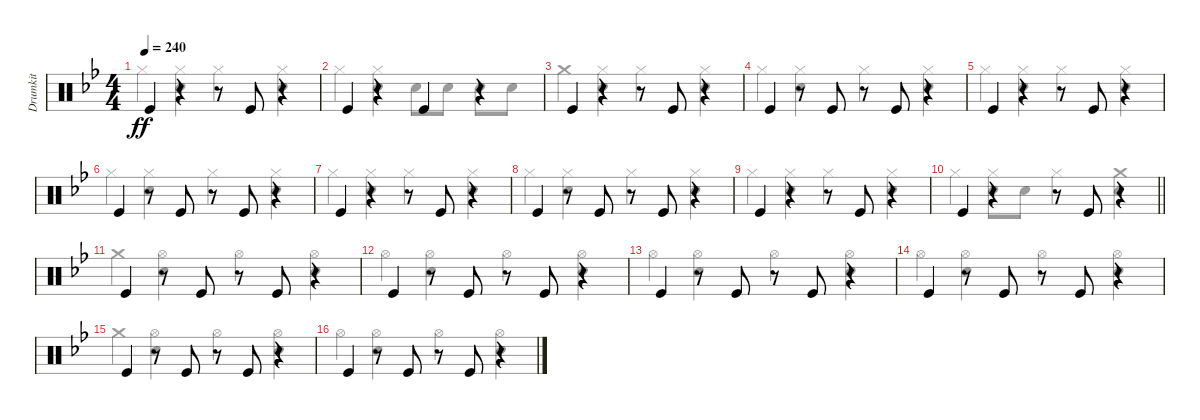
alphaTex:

\track ("Drumkit" "Drumkit") {instrument percussion}
\staff {score}
\articulation defaults
\voice
\ts (4 4)
\tempo 240
\clef neutral
\ks bb "Kick (hit)".4{dy ff}
r.4 r.8 "Kick (hit)".8 r.4 |
"Kick (hit)".4 r.4 "Kick (hit)".4 r.4 |
"Kick (hit)".4 r.4 r.8 "Kick (hit)".8 r.4 |
"Kick (hit)".4 r.8 "Kick (hit)".8 r.8 "Kick (hit)".8 r.4 |
"Kick (hit)".4 r.4 r.8 "Kick (hit)".8 r.4 |
"Kick (hit)".4 r.8 "Kick (hit)".8 r.8 "Kick (hit)".8 r.4 |
"Kick (hit)".4 r.4 r.8 "Kick (hit)".8 r.4 |
"Kick (hit)".4 r.8 "Kick (hit)".8 r.8 "Kick (hit)".8 r.4 |
"Kick (hit)".4 r.4 r.8 "Kick (hit)".8 r.4 |
\barLineRight lightlight "Kick (hit)".4
r.4 r.8 "Kick (hit)".8 r.4 |
\section ("" "")
"Kick (hit)".4 r.8 "Kick (hit)".8 r.8 "Kick (hit)".8 r.4 |
"Kick (hit)".4 r.8 "Kick (hit)".8 r.8 "Kick (hit)".8 r.4 |
"Kick (hit)".4 r.8 "Kick (hit)".8 r.8 "Kick (hit)".8 r.4 |
"Kick (hit)".4 r.8 "Kick (hit)".8 r.8 "Kick (hit)".8 r.4 |
"Kick (hit)".4 r.8 "Kick (hit)".8 r.8 "Kick (hit)".8 r.4 |
"Kick (hit)".4 r.8 "Kick (hit)".8 r.8 "Kick (hit)".8 r.4
\voice
\clef neutral
\ottava regular
\simile none
\ks bb "Hi-Hat (closed)".4{dy ff}
("Hi-Hat (closed)" "Snare (hit) 2").4 "Hi-Hat (closed)".4 ("Hi-Hat (closed)" "Snare (hit) 2").4 |
"Hi-Hat (closed)".4 ("Hi-Hat (closed)" "Snare (hit) 2").4 "Snare (hit) 2".8 "Snare (hit) 2".8 "Snare (hit) 2".8 "Snare (hit) 2".8 |
"Crash medium (hit)".4 ("Snare (hit) 2" "Hi-Hat (closed)").4 "Hi-Hat (closed)".4 ("Hi-Hat (closed)" "Snare (hit) 2").4 |
"Hi-Hat (closed)".4 ("Hi-Hat (closed)" "Snare (hit) 2").4 "Hi-Hat (closed)".4 ("Hi-Hat (closed)" "Snare (hit) 2").4 |
"Hi-Hat (closed)".4 ("Hi-Hat (closed)" "Snare (hit) 2").4 "Hi-Hat (closed)".4 ("Hi-Hat (closed)" "Snare (hit) 2").4 |
"Hi-Hat (closed)".4 ("Hi-Hat (closed)" "Snare (hit) 2").4 "Hi-Hat (closed)".4 ("Hi-Hat (closed)" "Snare (hit) 2").4 |
"Hi-Hat (closed)".4 ("Hi-Hat (closed)" "Snare (hit) 2").4 "Hi-Hat (closed)".4 ("Hi-Hat (closed)" "Snare (hit) 2").4 |
"Hi-Hat (closed)".4 ("Hi-Hat (closed)" "Snare (hit) 2").4 "Hi-Hat (closed)".4 ("Hi-Hat (closed)" "Snare (hit) 2").4 |
"Hi-Hat (closed)".4 ("Hi-Hat (closed)" "Snare (hit) 2").4 "Hi-Hat (closed)".4 ("Hi-Hat (closed)" "Snare (hit) 2").4 |
\barLineRight lightlight "Hi-Hat (closed)".4
("Hi-Hat (closed)" "Snare (hit) 2").8 "Snare (hit) 2".8 "Hi-Hat (closed)".4 ("Snare (hit) 2" "Crash medium (hit)").4 |
"Crash medium (hit)".4 ("Hi-Hat (open)" "Snare (hit) 2").4 "Hi-Hat (open)".4 ("Hi-Hat (open)" "Snare (hit) 2").4 |
"Hi-Hat (open)".4 ("Hi-Hat (open)" "Snare (hit) 2").4 "Hi-Hat (open)".4 ("Hi-Hat (open)" "Snare (hit) 2").4 |
"Hi-Hat (open)".4 ("Hi-Hat (open)" "Snare (hit) 2").4 "Hi-Hat (open)".4 ("Hi-Hat (open)" "Snare (hit) 2").4 |
"Hi-Hat (open)".4 ("Hi-Hat (open)" "Snare (hit) 2").4 "Hi-Hat (open)".4 ("Hi-Hat (open)" "Snare (hit) 2").4 |
"Crash medium (hit)".4 ("Hi-Hat (open)" "Snare (hit) 2").4 "Hi-Hat (open)".4 ("Hi-Hat (open)" "Snare (hit) 2").4 |
"Hi-Hat (open)".4 ("Hi-Hat (open)" "Snare (hit) 2").4 "Hi-Hat (open)".4 ("Hi-Hat (open)" "Snare (hit) 2").4
